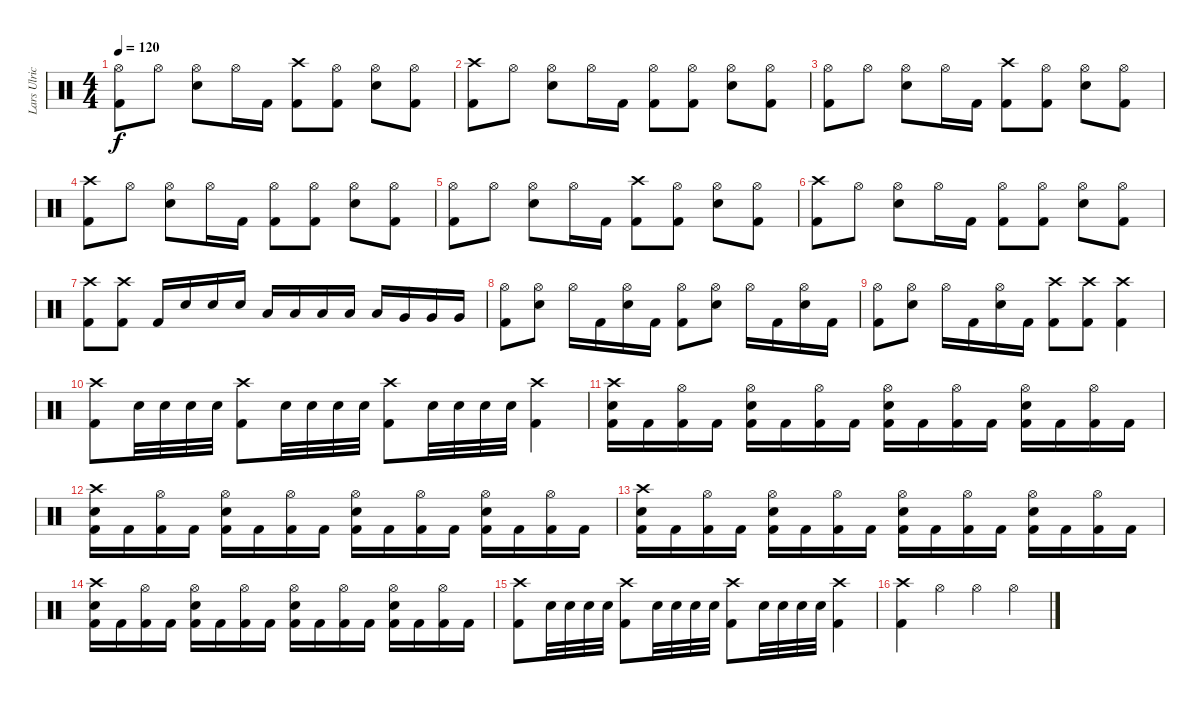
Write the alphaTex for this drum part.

\track ("Lars Ulrich" "Lars Ulric") {instrument percussion}
\staff {score}
\articulation defaults
\ts (4 4)
\tempo 120
\clef neutral
\ks c
("Hi-Hat (open)" "Kick (hit) 2").8{dy f} "Hi-Hat (open)".8 ("Hi-Hat (open)" "Electric Snare (hit)").8 "Hi-Hat (open)".16 "Kick (hit) 2".16 ("Crash high (hit)" "Kick (hit) 2").8 ("Hi-Hat (open)" "Kick (hit) 2").8 ("Hi-Hat (open)" "Electric Snare (hit)").8 ("Hi-Hat (open)" "Kick (hit) 2").8 |
("Crash high (hit)" "Kick (hit) 2").8 "Hi-Hat (open)".8 ("Hi-Hat (open)" "Electric Snare (hit)").8 "Hi-Hat (open)".16 "Kick (hit) 2".16 ("Hi-Hat (open)" "Kick (hit) 2").8 ("Hi-Hat (open)" "Kick (hit) 2").8 ("Hi-Hat (open)" "Electric Snare (hit)").8 ("Hi-Hat (open)" "Kick (hit) 2").8 |
("Hi-Hat (open)" "Kick (hit) 2").8 "Hi-Hat (open)".8 ("Hi-Hat (open)" "Electric Snare (hit)").8 "Hi-Hat (open)".16 "Kick (hit) 2".16 ("Crash high (hit)" "Kick (hit) 2").8 ("Hi-Hat (open)" "Kick (hit) 2").8 ("Hi-Hat (open)" "Electric Snare (hit)").8 ("Hi-Hat (open)" "Kick (hit) 2").8 |
("Crash high (hit)" "Kick (hit) 2").8 "Hi-Hat (open)".8 ("Hi-Hat (open)" "Electric Snare (hit)").8 "Hi-Hat (open)".16 "Kick (hit) 2".16 ("Hi-Hat (open)" "Kick (hit) 2").8 ("Hi-Hat (open)" "Kick (hit) 2").8 ("Hi-Hat (open)" "Electric Snare (hit)").8 ("Hi-Hat (open)" "Kick (hit) 2").8 |
("Hi-Hat (open)" "Kick (hit) 2").8 "Hi-Hat (open)".8 ("Hi-Hat (open)" "Electric Snare (hit)").8 "Hi-Hat (open)".16 "Kick (hit) 2".16 ("Crash high (hit)" "Kick (hit) 2").8 ("Hi-Hat (open)" "Kick (hit) 2").8 ("Hi-Hat (open)" "Electric Snare (hit)").8 ("Hi-Hat (open)" "Kick (hit) 2").8 |
("Crash high (hit)" "Kick (hit) 2").8 "Hi-Hat (open)".8 ("Hi-Hat (open)" "Electric Snare (hit)").8 "Hi-Hat (open)".16 "Kick (hit) 2".16 ("Hi-Hat (open)" "Kick (hit) 2").8 ("Hi-Hat (open)" "Kick (hit) 2").8 ("Hi-Hat (open)" "Electric Snare (hit)").8 ("Hi-Hat (open)" "Kick (hit) 2").8 |
("Crash high (hit)" "Kick (hit) 2").8 ("Crash high (hit)" "Kick (hit) 2").8 "Kick (hit) 2".16 "Electric Snare (hit)".16 "Electric Snare (hit)".16 "Electric Snare (hit)".16 "Low Tom (hit)".16 "Low Tom (hit)".16 "Low Tom (hit)".16 "Low Tom (hit)".16 "Low Tom (hit)".16 "Very Low Tom (hit)".16 "Very Low Tom (hit)".16 "Very Low Tom (hit)".16 |
("Hi-Hat (open)" "Kick (hit) 2").8 ("Hi-Hat (open)" "Electric Snare (hit)").8 "Hi-Hat (open)".16 "Kick (hit) 2".16 ("Hi-Hat (open)" "Electric Snare (hit)").16 "Kick (hit) 2".16 ("Hi-Hat (open)" "Kick (hit) 2").8 ("Hi-Hat (open)" "Electric Snare (hit)").8 "Hi-Hat (open)".16 "Kick (hit) 2".16 ("Hi-Hat (open)" "Electric Snare (hit)").16 "Kick (hit) 2".16 |
("Hi-Hat (open)" "Kick (hit) 2").8 ("Hi-Hat (open)" "Electric Snare (hit)").8 "Hi-Hat (open)".16 "Kick (hit) 2".16 ("Hi-Hat (open)" "Electric Snare (hit)").16 "Kick (hit) 2".16 ("Kick (hit) 2" "Crash high (hit)").8 ("Kick (hit) 2" "Crash high (hit)").8 ("Kick (hit) 2" "Crash high (hit)").4 |
("Kick (hit) 2" "Crash high (hit)").8 "Electric Snare (hit)".32 "Electric Snare (hit)".32 "Electric Snare (hit)".32 "Electric Snare (hit)".32 ("Kick (hit) 2" "Crash high (hit)").8 "Electric Snare (hit)".32 "Electric Snare (hit)".32 "Electric Snare (hit)".32 "Electric Snare (hit)".32 ("Kick (hit) 2" "Crash high (hit)").8 "Electric Snare (hit)".32 "Electric Snare (hit)".32 "Electric Snare (hit)".32 "Electric Snare (hit)".32 ("Kick (hit) 2" "Crash high (hit)").4 |
("Crash high (hit)" "Electric Snare (hit)" "Kick (hit) 2").16 "Kick (hit) 2".16 ("Hi-Hat (open)" "Kick (hit) 2").16 "Kick (hit) 2".16 ("Hi-Hat (open)" "Electric Snare (hit)" "Kick (hit) 2").16 "Kick (hit) 2".16 ("Hi-Hat (open)" "Kick (hit) 2").16 "Kick (hit) 2".16 ("Hi-Hat (open)" "Electric Snare (hit)" "Kick (hit) 2").16 "Kick (hit) 2".16 ("Hi-Hat (open)" "Kick (hit) 2").16 "Kick (hit) 2".16 ("Hi-Hat (open)" "Electric Snare (hit)" "Kick (hit) 2").16 "Kick (hit) 2".16 ("Hi-Hat (open)" "Kick (hit) 2").16 "Kick (hit) 2".16 |
("Crash high (hit)" "Electric Snare (hit)" "Kick (hit) 2").16 "Kick (hit) 2".16 ("Hi-Hat (open)" "Kick (hit) 2").16 "Kick (hit) 2".16 ("Hi-Hat (open)" "Electric Snare (hit)" "Kick (hit) 2").16 "Kick (hit) 2".16 ("Hi-Hat (open)" "Kick (hit) 2").16 "Kick (hit) 2".16 ("Hi-Hat (open)" "Electric Snare (hit)" "Kick (hit) 2").16 "Kick (hit) 2".16 ("Hi-Hat (open)" "Kick (hit) 2").16 "Kick (hit) 2".16 ("Hi-Hat (open)" "Electric Snare (hit)" "Kick (hit) 2").16 "Kick (hit) 2".16 ("Hi-Hat (open)" "Kick (hit) 2").16 "Kick (hit) 2".16 |
("Crash high (hit)" "Electric Snare (hit)" "Kick (hit) 2").16 "Kick (hit) 2".16 ("Hi-Hat (open)" "Kick (hit) 2").16 "Kick (hit) 2".16 ("Hi-Hat (open)" "Electric Snare (hit)" "Kick (hit) 2").16 "Kick (hit) 2".16 ("Hi-Hat (open)" "Kick (hit) 2").16 "Kick (hit) 2".16 ("Hi-Hat (open)" "Electric Snare (hit)" "Kick (hit) 2").16 "Kick (hit) 2".16 ("Hi-Hat (open)" "Kick (hit) 2").16 "Kick (hit) 2".16 ("Hi-Hat (open)" "Electric Snare (hit)" "Kick (hit) 2").16 "Kick (hit) 2".16 ("Hi-Hat (open)" "Kick (hit) 2").16 "Kick (hit) 2".16 |
("Crash high (hit)" "Electric Snare (hit)" "Kick (hit) 2").16 "Kick (hit) 2".16 ("Hi-Hat (open)" "Kick (hit) 2").16 "Kick (hit) 2".16 ("Hi-Hat (open)" "Electric Snare (hit)" "Kick (hit) 2").16 "Kick (hit) 2".16 ("Hi-Hat (open)" "Kick (hit) 2").16 "Kick (hit) 2".16 ("Hi-Hat (open)" "Electric Snare (hit)" "Kick (hit) 2").16 "Kick (hit) 2".16 ("Hi-Hat (open)" "Kick (hit) 2").16 "Kick (hit) 2".16 ("Hi-Hat (open)" "Electric Snare (hit)" "Kick (hit) 2").16 "Kick (hit) 2".16 ("Hi-Hat (open)" "Kick (hit) 2").16 "Kick (hit) 2".16 |
("Kick (hit) 2" "Crash high (hit)").8 "Electric Snare (hit)".32 "Electric Snare (hit)".32 "Electric Snare (hit)".32 "Electric Snare (hit)".32 ("Kick (hit) 2" "Crash high (hit)").8 "Electric Snare (hit)".32 "Electric Snare (hit)".32 "Electric Snare (hit)".32 "Electric Snare (hit)".32 ("Kick (hit) 2" "Crash high (hit)").8 "Electric Snare (hit)".32 "Electric Snare (hit)".32 "Electric Snare (hit)".32 "Electric Snare (hit)".32 ("Kick (hit) 2" "Crash high (hit)").4 |
("Crash high (hit)" "Kick (hit) 2").4 "Hi-Hat (open)".4 "Hi-Hat (open)".4 "Hi-Hat (open)".4
